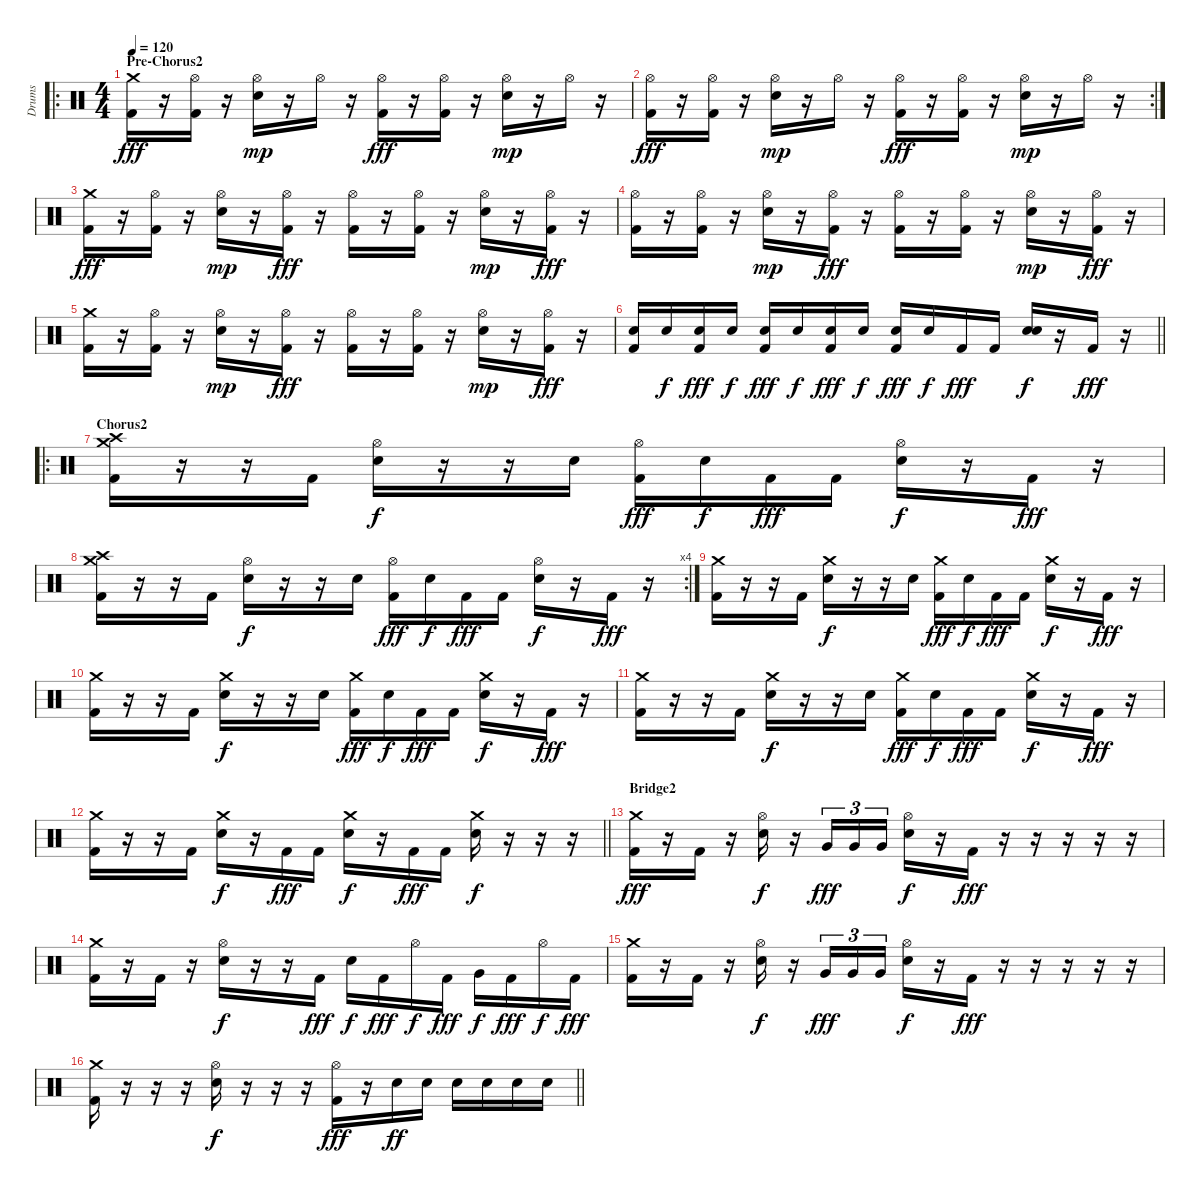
\track ("Drums" "Drums") {instrument percussion}
\staff {score}
\articulation defaults
\ro
\ts (4 4)
\section ("" "Pre-Chorus2")
\tempo 120
\clef neutral
\ks c
("Crash medium (hit)" "Kick (hit) 2").16{dy fff} r.16 ("Hi-Hat (open)" "Kick (hit) 2").16 r.16 ("Hi-Hat (open)" "Snare (hit) 2").16{dy mp} r.16 "Hi-Hat (open)".16 r.16 ("Hi-Hat (open)" "Kick (hit) 2").16{dy fff} r.16 ("Hi-Hat (open)" "Kick (hit) 2").16 r.16 ("Hi-Hat (open)" "Snare (hit) 2").16{dy mp} r.16 "Hi-Hat (open)".16 r.16 |
\rc 2
("Hi-Hat (open)" "Kick (hit) 2").16{dy fff} r.16 ("Hi-Hat (open)" "Kick (hit) 2").16 r.16 ("Hi-Hat (open)" "Snare (hit) 2").16{dy mp} r.16 "Hi-Hat (open)".16 r.16 ("Hi-Hat (open)" "Kick (hit) 2").16{dy fff} r.16 ("Hi-Hat (open)" "Kick (hit) 2").16 r.16 ("Hi-Hat (open)" "Snare (hit) 2").16{dy mp} r.16 "Hi-Hat (open)".16 r.16 |
("Crash medium (hit)" "Kick (hit) 2").16{dy fff} r.16 ("Hi-Hat (open)" "Kick (hit) 2").16 r.16 ("Hi-Hat (open)" "Snare (hit) 2").16{dy mp} r.16 ("Hi-Hat (open)" "Kick (hit) 2").16{dy fff} r.16 ("Hi-Hat (open)" "Kick (hit) 2").16 r.16 ("Hi-Hat (open)" "Kick (hit) 2").16 r.16 ("Hi-Hat (open)" "Snare (hit) 2").16{dy mp} r.16 ("Hi-Hat (open)" "Kick (hit) 2").16{dy fff} r.16 |
("Hi-Hat (open)" "Kick (hit) 2").16 r.16 ("Hi-Hat (open)" "Kick (hit) 2").16 r.16 ("Hi-Hat (open)" "Snare (hit) 2").16{dy mp} r.16 ("Hi-Hat (open)" "Kick (hit) 2").16{dy fff} r.16 ("Hi-Hat (open)" "Kick (hit) 2").16 r.16 ("Hi-Hat (open)" "Kick (hit) 2").16 r.16 ("Hi-Hat (open)" "Snare (hit) 2").16{dy mp} r.16 ("Hi-Hat (open)" "Kick (hit) 2").16{dy fff} r.16 |
("Crash medium (hit)" "Kick (hit) 2").16 r.16 ("Hi-Hat (open)" "Kick (hit) 2").16 r.16 ("Hi-Hat (open)" "Snare (hit) 2").16{dy mp} r.16 ("Hi-Hat (open)" "Kick (hit) 2").16{dy fff} r.16 ("Hi-Hat (open)" "Kick (hit) 2").16 r.16 ("Hi-Hat (open)" "Kick (hit) 2").16 r.16 ("Hi-Hat (open)" "Snare (hit) 2").16{dy mp} r.16 ("Hi-Hat (open)" "Kick (hit) 2").16{dy fff} r.16 |
\barLineRight lightlight
("Snare (hit) 2" "Kick (hit) 2").16 "Snare (hit) 2".16{dy f} ("Snare (hit) 2" "Kick (hit) 2").16{dy fff} "Snare (hit) 2".16{dy f} ("Snare (hit) 2" "Kick (hit) 2").16{dy fff} "Snare (hit) 2".16{dy f} ("Snare (hit) 2" "Kick (hit) 2").16{dy fff} "Snare (hit) 2".16{dy f} ("Snare (hit) 2" "Kick (hit) 2").16{dy fff} "Snare (hit) 2".16{dy f} "Kick (hit) 2".16{dy fff} "Kick (hit) 2".16 ("Electric Snare (hit)" "Snare (hit) 2").16{dy f} r.16 "Kick (hit) 2".16{dy fff} r.16 |
\ro
\section ("" "Chorus2")
("Crash medium (hit)" "Crash high (hit)" "Kick (hit) 2").16 r.16 r.16 "Kick (hit) 2".16 ("Hi-Hat (open)" "Snare (hit) 2").16{dy f} r.16 r.16 "Snare (hit) 2".16 ("Hi-Hat (open)" "Kick (hit) 2").16{dy fff} "Snare (hit) 2".16{dy f} "Kick (hit) 2".16{dy fff} "Kick (hit) 2".16 ("Hi-Hat (open)" "Snare (hit) 2").16{dy f} r.16 "Kick (hit) 2".16{dy fff} r.16 |
\rc 4
("Crash medium (hit)" "Crash high (hit)" "Kick (hit) 2").16 r.16 r.16 "Kick (hit) 2".16 ("Hi-Hat (open)" "Snare (hit) 2").16{dy f} r.16 r.16 "Snare (hit) 2".16 ("Hi-Hat (open)" "Kick (hit) 2").16{dy fff} "Snare (hit) 2".16{dy f} "Kick (hit) 2".16{dy fff} "Kick (hit) 2".16 ("Hi-Hat (open)" "Snare (hit) 2").16{dy f} r.16 "Kick (hit) 2".16{dy fff} r.16 |
("Crash medium (hit)" "Kick (hit) 2").16 r.16 r.16 "Kick (hit) 2".16 ("Crash medium (hit)" "Snare (hit) 2").16{dy f} r.16 r.16 "Snare (hit) 2".16 ("Crash medium (hit)" "Kick (hit) 2").16{dy fff} "Snare (hit) 2".16{dy f} "Kick (hit) 2".16{dy fff} "Kick (hit) 2".16 ("Crash medium (hit)" "Snare (hit) 2").16{dy f} r.16 "Kick (hit) 2".16{dy fff} r.16 |
("Crash medium (hit)" "Kick (hit) 2").16 r.16 r.16 "Kick (hit) 2".16 ("Crash medium (hit)" "Snare (hit) 2").16{dy f} r.16 r.16 "Snare (hit) 2".16 ("Crash medium (hit)" "Kick (hit) 2").16{dy fff} "Snare (hit) 2".16{dy f} "Kick (hit) 2".16{dy fff} "Kick (hit) 2".16 ("Crash medium (hit)" "Snare (hit) 2").16{dy f} r.16 "Kick (hit) 2".16{dy fff} r.16 |
("Crash medium (hit)" "Kick (hit) 2").16 r.16 r.16 "Kick (hit) 2".16 ("Crash medium (hit)" "Snare (hit) 2").16{dy f} r.16 r.16 "Snare (hit) 2".16 ("Crash medium (hit)" "Kick (hit) 2").16{dy fff} "Snare (hit) 2".16{dy f} "Kick (hit) 2".16{dy fff} "Kick (hit) 2".16 ("Crash medium (hit)" "Snare (hit) 2").16{dy f} r.16 "Kick (hit) 2".16{dy fff} r.16 |
\barLineRight lightlight
("Crash medium (hit)" "Kick (hit) 2").16 r.16 r.16 "Kick (hit) 2".16 ("Crash medium (hit)" "Snare (hit) 2").16{dy f} r.16 "Kick (hit) 2".16{dy fff} "Kick (hit) 2".16 ("Crash medium (hit)" "Snare (hit) 2").16{dy f} r.16 "Kick (hit) 2".16{dy fff} "Kick (hit) 2".16 ("Crash medium (hit)" "Snare (hit) 2").16{dy f} r.16 r.16 r.16 |
\section ("" "Bridge2")
("Crash medium (hit)" "Kick (hit) 2").16{dy fff} r.16 "Kick (hit) 2".16 r.16 ("Hi-Hat (open)" "Snare (hit) 2").16{dy f} r.16 "Very Low Tom (hit)".16{tu (3 2) dy fff} "Very Low Tom (hit)".16{tu (3 2)} "Very Low Tom (hit)".16{tu (3 2)} ("Hi-Hat (open)" "Snare (hit) 2").16{dy f} r.16 "Kick (hit) 2".16{dy fff} r.16 r.16 r.16 r.16 r.16 |
("Crash medium (hit)" "Kick (hit) 2").16 r.16 "Kick (hit) 2".16 r.16 ("Hi-Hat (open)" "Snare (hit) 2").16{dy f} r.16 r.16 "Kick (hit) 2".16{dy fff} "Snare (hit) 2".16{dy f} "Kick (hit) 2".16{dy fff} "Hi-Hat (open)".16{dy f} "Kick (hit) 2".16{dy fff} "Very Low Tom (hit)".16{dy f} "Kick (hit) 2".16{dy fff} "Hi-Hat (open)".16{dy f} "Kick (hit) 2".16{dy fff} |
("Crash medium (hit)" "Kick (hit) 2").16 r.16 "Kick (hit) 2".16 r.16 ("Hi-Hat (open)" "Snare (hit) 2").16{dy f} r.16 "Very Low Tom (hit)".16{tu (3 2) dy fff} "Very Low Tom (hit)".16{tu (3 2)} "Very Low Tom (hit)".16{tu (3 2)} ("Hi-Hat (open)" "Snare (hit) 2").16{dy f} r.16 "Kick (hit) 2".16{dy fff} r.16 r.16 r.16 r.16 r.16 |
\barLineRight lightlight
("Crash medium (hit)" "Kick (hit) 2").16 r.16 r.16 r.16 ("Hi-Hat (open)" "Snare (hit) 2").16{dy f} r.16 r.16 r.16 ("Hi-Hat (open)" "Kick (hit) 2").16{dy fff} r.16 "Snare (hit) 2".16{dy ff} "Snare (hit) 2".16 "Snare (hit) 2".16 "Snare (hit) 2".16 "Snare (hit) 2".16 "Snare (hit) 2".16
